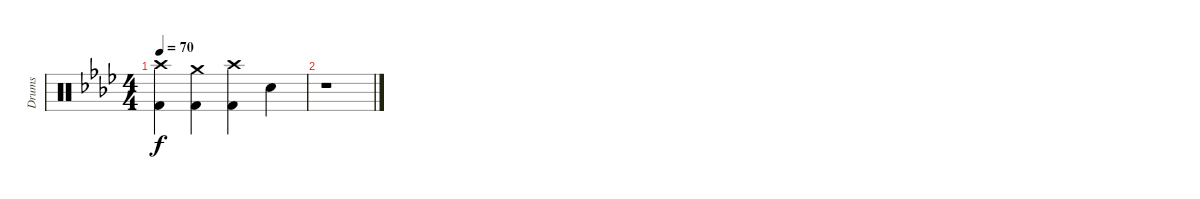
\track ("Drums" "Drums") {instrument percussion}
\staff {score}
\articulation defaults
\ts (4 4)
\tempo 70
\clef neutral
\ks fminor
("Kick (hit) 2" "Crash high (hit)").4{dy f} ("Kick (hit) 2" "Crash medium (hit)").4 ("Kick (hit) 2" "Crash high (hit)").4 "Snare (hit) 2".4 |
r.1
